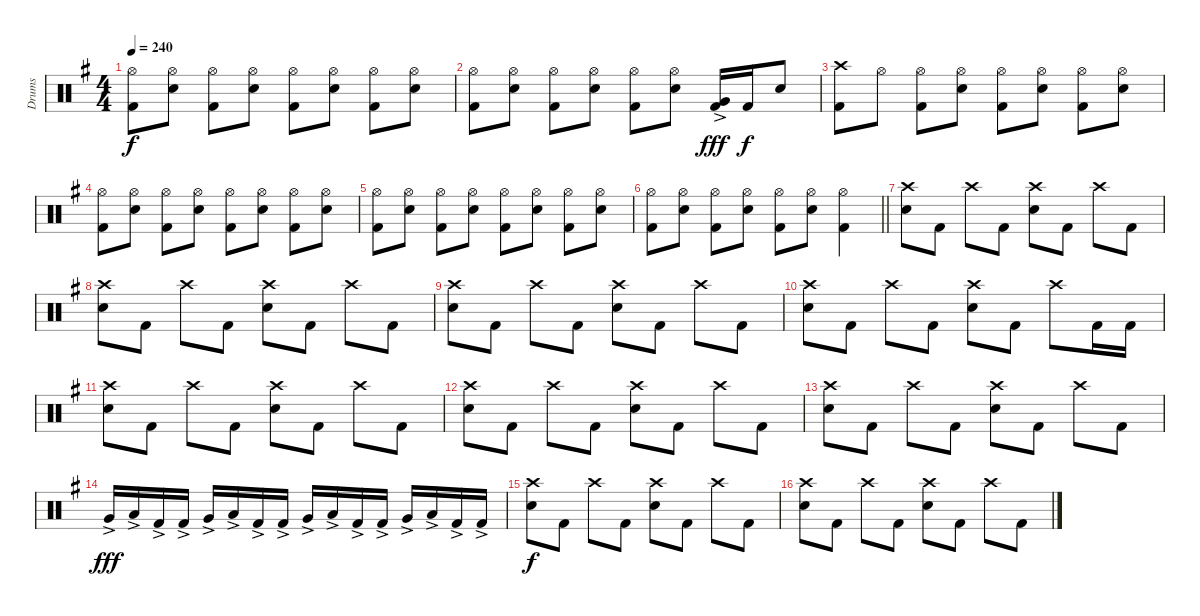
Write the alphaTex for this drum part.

\track ("Drums" "Drums") {instrument percussion}
\staff {score}
\articulation defaults
\ts (4 4)
\tempo 240
\clef neutral
\ks eminor
("Hi-Hat (open)" "Kick (hit) 2").8{dy f} ("Hi-Hat (open)" "Snare (hit) 2").8 ("Hi-Hat (open)" "Kick (hit) 2").8 ("Hi-Hat (open)" "Snare (hit) 2").8 ("Hi-Hat (open)" "Kick (hit) 2").8 ("Hi-Hat (open)" "Snare (hit) 2").8 ("Hi-Hat (open)" "Kick (hit) 2").8 ("Hi-Hat (open)" "Snare (hit) 2").8 |
("Hi-Hat (open)" "Kick (hit) 2").8 ("Hi-Hat (open)" "Snare (hit) 2").8 ("Hi-Hat (open)" "Kick (hit) 2").8 ("Hi-Hat (open)" "Snare (hit) 2").8 ("Hi-Hat (open)" "Kick (hit) 2").8 ("Hi-Hat (open)" "Snare (hit) 2").8 ("Very Low Tom (hit)"{ac} "Kick (hit) 2").16{dy fff} "Kick (hit) 2".16{dy f} "Snare (hit) 2".8 |
("Crash high (hit)" "Kick (hit) 2").8 "Hi-Hat (open)".8 ("Hi-Hat (open)" "Kick (hit) 2").8 ("Hi-Hat (open)" "Snare (hit) 2").8 ("Hi-Hat (open)" "Kick (hit) 2").8 ("Hi-Hat (open)" "Snare (hit) 2").8 ("Hi-Hat (open)" "Kick (hit) 2").8 ("Hi-Hat (open)" "Snare (hit) 2").8 |
("Hi-Hat (open)" "Kick (hit) 2").8 ("Hi-Hat (open)" "Snare (hit) 2").8 ("Hi-Hat (open)" "Kick (hit) 2").8 ("Hi-Hat (open)" "Snare (hit) 2").8 ("Hi-Hat (open)" "Kick (hit) 2").8 ("Hi-Hat (open)" "Snare (hit) 2").8 ("Hi-Hat (open)" "Kick (hit) 2").8 ("Hi-Hat (open)" "Snare (hit) 2").8 |
("Hi-Hat (open)" "Kick (hit) 2").8 ("Hi-Hat (open)" "Snare (hit) 2").8 ("Hi-Hat (open)" "Kick (hit) 2").8 ("Hi-Hat (open)" "Snare (hit) 2").8 ("Hi-Hat (open)" "Kick (hit) 2").8 ("Hi-Hat (open)" "Snare (hit) 2").8 ("Hi-Hat (open)" "Kick (hit) 2").8 ("Hi-Hat (open)" "Snare (hit) 2").8 |
\barLineRight lightlight
("Hi-Hat (open)" "Kick (hit) 2").8 ("Hi-Hat (open)" "Snare (hit) 2").8 ("Hi-Hat (open)" "Kick (hit) 2").8 ("Hi-Hat (open)" "Snare (hit) 2").8 ("Hi-Hat (open)" "Kick (hit) 2").8 ("Hi-Hat (open)" "Snare (hit) 2").8 ("Hi-Hat (open)" "Kick (hit) 2").4 |
("Crash high (hit)" "Snare (hit) 2").8 "Kick (hit) 2".8 "Crash high (hit)".8 "Kick (hit) 2".8 ("Crash high (hit)" "Snare (hit) 2").8 "Kick (hit) 2".8 "Crash high (hit)".8 "Kick (hit) 2".8 |
("Crash high (hit)" "Snare (hit) 2").8 "Kick (hit) 2".8 "Crash high (hit)".8 "Kick (hit) 2".8 ("Crash high (hit)" "Snare (hit) 2").8 "Kick (hit) 2".8 "Crash high (hit)".8 "Kick (hit) 2".8 |
("Crash high (hit)" "Snare (hit) 2").8 "Kick (hit) 2".8 "Crash high (hit)".8 "Kick (hit) 2".8 ("Crash high (hit)" "Snare (hit) 2").8 "Kick (hit) 2".8 "Crash high (hit)".8 "Kick (hit) 2".8 |
("Crash high (hit)" "Snare (hit) 2").8 "Kick (hit) 2".8 "Crash high (hit)".8 "Kick (hit) 2".8 ("Crash high (hit)" "Snare (hit) 2").8 "Kick (hit) 2".8 "Crash high (hit)".8 "Kick (hit) 2".16 "Kick (hit) 2".16 |
("Crash high (hit)" "Snare (hit) 2").8 "Kick (hit) 2".8 "Crash high (hit)".8 "Kick (hit) 2".8 ("Crash high (hit)" "Snare (hit) 2").8 "Kick (hit) 2".8 "Crash high (hit)".8 "Kick (hit) 2".8 |
("Crash high (hit)" "Snare (hit) 2").8 "Kick (hit) 2".8 "Crash high (hit)".8 "Kick (hit) 2".8 ("Crash high (hit)" "Snare (hit) 2").8 "Kick (hit) 2".8 "Crash high (hit)".8 "Kick (hit) 2".8 |
("Crash high (hit)" "Snare (hit) 2").8 "Kick (hit) 2".8 "Crash high (hit)".8 "Kick (hit) 2".8 ("Crash high (hit)" "Snare (hit) 2").8 "Kick (hit) 2".8 "Crash high (hit)".8 "Kick (hit) 2".8 |
"Very Low Tom (hit)"{ac}.16{dy fff} "Low Tom (hit)"{ac}.16 "Kick (hit) 2"{ac}.16 "Kick (hit) 2"{ac}.16 "Very Low Tom (hit)"{ac}.16 "Low Tom (hit)"{ac}.16 "Kick (hit) 2"{ac}.16 "Kick (hit) 2"{ac}.16 "Very Low Tom (hit)"{ac}.16 "Low Tom (hit)"{ac}.16 "Kick (hit) 2"{ac}.16 "Kick (hit) 2"{ac}.16 "Very Low Tom (hit)"{ac}.16 "Low Tom (hit)"{ac}.16 "Kick (hit) 2"{ac}.16 "Kick (hit) 2"{ac}.16 |
("Crash high (hit)" "Snare (hit) 2").8{dy f} "Kick (hit) 2".8 "Crash high (hit)".8 "Kick (hit) 2".8 ("Crash high (hit)" "Snare (hit) 2").8 "Kick (hit) 2".8 "Crash high (hit)".8 "Kick (hit) 2".8 |
("Crash high (hit)" "Snare (hit) 2").8 "Kick (hit) 2".8 "Crash high (hit)".8 "Kick (hit) 2".8 ("Crash high (hit)" "Snare (hit) 2").8 "Kick (hit) 2".8 "Crash high (hit)".8 "Kick (hit) 2".8
